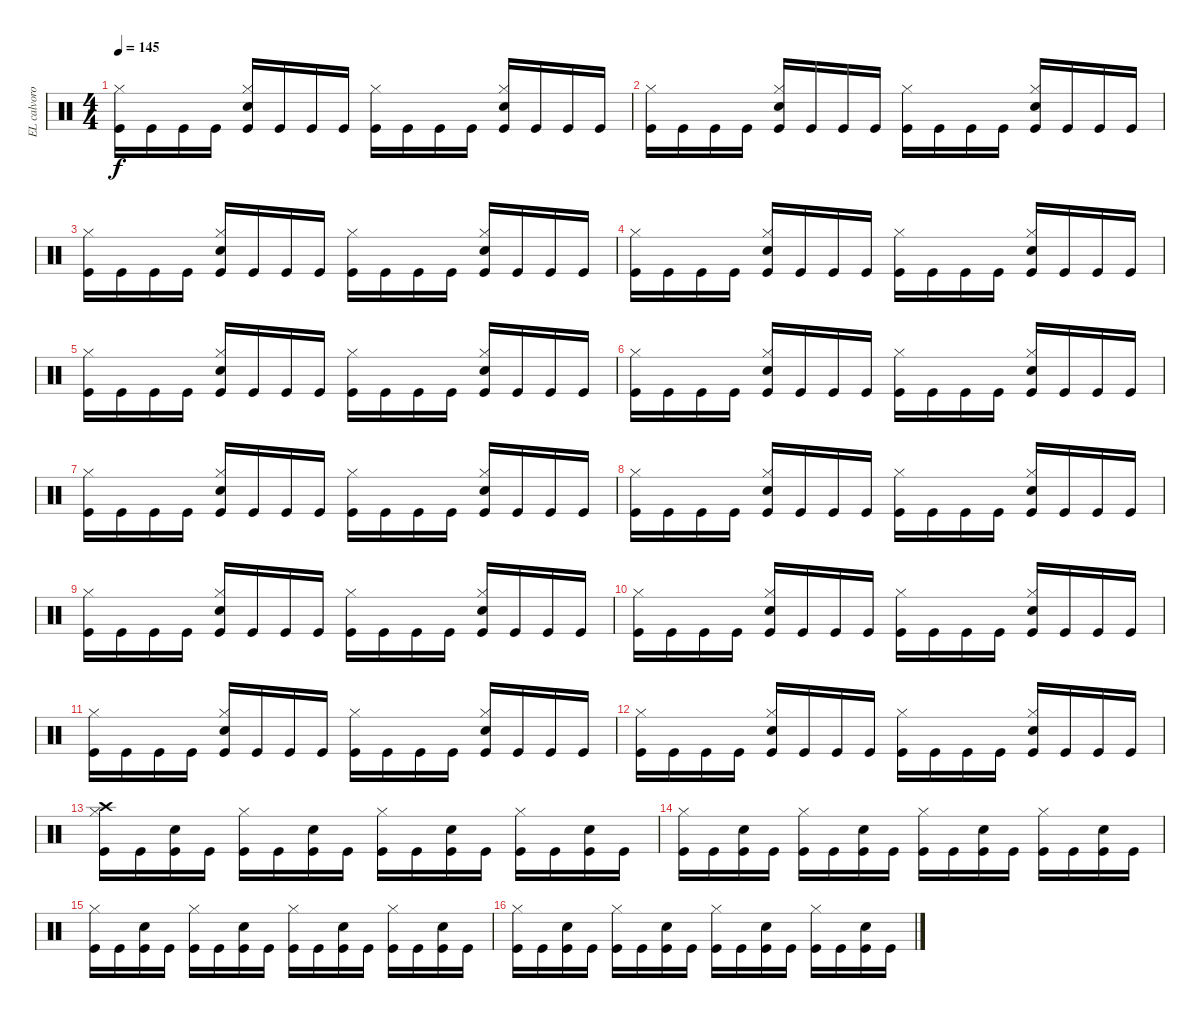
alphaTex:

\track ("EL calvorotas" "EL calvoro") {instrument percussion}
\staff {score}
\articulation defaults
\ts (4 4)
\tempo 145
\clef neutral
\ks c
("Kick (hit)" "Hi-Hat (closed)").16{dy f} "Kick (hit)".16 "Kick (hit)".16 "Kick (hit)".16 ("Hi-Hat (closed)" "Kick (hit)" "Snare (hit) 2").16 "Kick (hit)".16 "Kick (hit)".16 "Kick (hit)".16 ("Hi-Hat (closed)" "Kick (hit)").16 "Kick (hit)".16 "Kick (hit)".16 "Kick (hit)".16 ("Hi-Hat (closed)" "Kick (hit)" "Snare (hit) 2").16 "Kick (hit)".16 "Kick (hit)".16 "Kick (hit)".16 |
("Kick (hit)" "Hi-Hat (closed)").16 "Kick (hit)".16 "Kick (hit)".16 "Kick (hit)".16 ("Hi-Hat (closed)" "Kick (hit)" "Snare (hit) 2").16 "Kick (hit)".16 "Kick (hit)".16 "Kick (hit)".16 ("Hi-Hat (closed)" "Kick (hit)").16 "Kick (hit)".16 "Kick (hit)".16 "Kick (hit)".16 ("Hi-Hat (closed)" "Kick (hit)" "Snare (hit) 2").16 "Kick (hit)".16 "Kick (hit)".16 "Kick (hit)".16 |
("Kick (hit)" "Hi-Hat (closed)").16 "Kick (hit)".16 "Kick (hit)".16 "Kick (hit)".16 ("Hi-Hat (closed)" "Kick (hit)" "Snare (hit) 2").16 "Kick (hit)".16 "Kick (hit)".16 "Kick (hit)".16 ("Hi-Hat (closed)" "Kick (hit)").16 "Kick (hit)".16 "Kick (hit)".16 "Kick (hit)".16 ("Hi-Hat (closed)" "Kick (hit)" "Snare (hit) 2").16 "Kick (hit)".16 "Kick (hit)".16 "Kick (hit)".16 |
("Kick (hit)" "Hi-Hat (closed)").16 "Kick (hit)".16 "Kick (hit)".16 "Kick (hit)".16 ("Hi-Hat (closed)" "Kick (hit)" "Snare (hit) 2").16 "Kick (hit)".16 "Kick (hit)".16 "Kick (hit)".16 ("Hi-Hat (closed)" "Kick (hit)").16 "Kick (hit)".16 "Kick (hit)".16 "Kick (hit)".16 ("Hi-Hat (closed)" "Kick (hit)" "Snare (hit) 2").16 "Kick (hit)".16 "Kick (hit)".16 "Kick (hit)".16 |
("Kick (hit)" "Hi-Hat (closed)").16 "Kick (hit)".16 "Kick (hit)".16 "Kick (hit)".16 ("Hi-Hat (closed)" "Kick (hit)" "Snare (hit) 2").16 "Kick (hit)".16 "Kick (hit)".16 "Kick (hit)".16 ("Hi-Hat (closed)" "Kick (hit)").16 "Kick (hit)".16 "Kick (hit)".16 "Kick (hit)".16 ("Hi-Hat (closed)" "Kick (hit)" "Snare (hit) 2").16 "Kick (hit)".16 "Kick (hit)".16 "Kick (hit)".16 |
("Kick (hit)" "Hi-Hat (closed)").16 "Kick (hit)".16 "Kick (hit)".16 "Kick (hit)".16 ("Hi-Hat (closed)" "Kick (hit)" "Snare (hit) 2").16 "Kick (hit)".16 "Kick (hit)".16 "Kick (hit)".16 ("Hi-Hat (closed)" "Kick (hit)").16 "Kick (hit)".16 "Kick (hit)".16 "Kick (hit)".16 ("Hi-Hat (closed)" "Kick (hit)" "Snare (hit) 2").16 "Kick (hit)".16 "Kick (hit)".16 "Kick (hit)".16 |
("Kick (hit)" "Hi-Hat (closed)").16 "Kick (hit)".16 "Kick (hit)".16 "Kick (hit)".16 ("Hi-Hat (closed)" "Kick (hit)" "Snare (hit) 2").16 "Kick (hit)".16 "Kick (hit)".16 "Kick (hit)".16 ("Hi-Hat (closed)" "Kick (hit)").16 "Kick (hit)".16 "Kick (hit)".16 "Kick (hit)".16 ("Hi-Hat (closed)" "Kick (hit)" "Snare (hit) 2").16 "Kick (hit)".16 "Kick (hit)".16 "Kick (hit)".16 |
("Kick (hit)" "Hi-Hat (closed)").16 "Kick (hit)".16 "Kick (hit)".16 "Kick (hit)".16 ("Hi-Hat (closed)" "Kick (hit)" "Snare (hit) 2").16 "Kick (hit)".16 "Kick (hit)".16 "Kick (hit)".16 ("Hi-Hat (closed)" "Kick (hit)").16 "Kick (hit)".16 "Kick (hit)".16 "Kick (hit)".16 ("Hi-Hat (closed)" "Kick (hit)" "Snare (hit) 2").16 "Kick (hit)".16 "Kick (hit)".16 "Kick (hit)".16 |
("Kick (hit)" "Hi-Hat (closed)").16 "Kick (hit)".16 "Kick (hit)".16 "Kick (hit)".16 ("Hi-Hat (closed)" "Kick (hit)" "Snare (hit) 2").16 "Kick (hit)".16 "Kick (hit)".16 "Kick (hit)".16 ("Hi-Hat (closed)" "Kick (hit)").16 "Kick (hit)".16 "Kick (hit)".16 "Kick (hit)".16 ("Hi-Hat (closed)" "Kick (hit)" "Snare (hit) 2").16 "Kick (hit)".16 "Kick (hit)".16 "Kick (hit)".16 |
("Kick (hit)" "Hi-Hat (closed)").16 "Kick (hit)".16 "Kick (hit)".16 "Kick (hit)".16 ("Hi-Hat (closed)" "Kick (hit)" "Snare (hit) 2").16 "Kick (hit)".16 "Kick (hit)".16 "Kick (hit)".16 ("Hi-Hat (closed)" "Kick (hit)").16 "Kick (hit)".16 "Kick (hit)".16 "Kick (hit)".16 ("Hi-Hat (closed)" "Kick (hit)" "Snare (hit) 2").16 "Kick (hit)".16 "Kick (hit)".16 "Kick (hit)".16 |
("Kick (hit)" "Hi-Hat (closed)").16 "Kick (hit)".16 "Kick (hit)".16 "Kick (hit)".16 ("Hi-Hat (closed)" "Kick (hit)" "Snare (hit) 2").16 "Kick (hit)".16 "Kick (hit)".16 "Kick (hit)".16 ("Hi-Hat (closed)" "Kick (hit)").16 "Kick (hit)".16 "Kick (hit)".16 "Kick (hit)".16 ("Hi-Hat (closed)" "Kick (hit)" "Snare (hit) 2").16 "Kick (hit)".16 "Kick (hit)".16 "Kick (hit)".16 |
("Kick (hit)" "Hi-Hat (closed)").16 "Kick (hit)".16 "Kick (hit)".16 "Kick (hit)".16 ("Hi-Hat (closed)" "Kick (hit)" "Snare (hit) 2").16 "Kick (hit)".16 "Kick (hit)".16 "Kick (hit)".16 ("Hi-Hat (closed)" "Kick (hit)").16 "Kick (hit)".16 "Kick (hit)".16 "Kick (hit)".16 ("Hi-Hat (closed)" "Kick (hit)" "Snare (hit) 2").16 "Kick (hit)".16 "Kick (hit)".16 "Kick (hit)".16 |
("Crash high (hit)" "Kick (hit)" "Hi-Hat (closed)").16 "Kick (hit)".16 ("Kick (hit)" "Snare (hit) 2").16 "Kick (hit)".16 ("Kick (hit)" "Hi-Hat (closed)").16 "Kick (hit)".16 ("Kick (hit)" "Snare (hit) 2").16 "Kick (hit)".16 ("Hi-Hat (closed)" "Kick (hit)").16 "Kick (hit)".16 ("Kick (hit)" "Snare (hit) 2").16 "Kick (hit)".16 ("Hi-Hat (closed)" "Kick (hit)").16 "Kick (hit)".16 ("Kick (hit)" "Snare (hit) 2").16 "Kick (hit)".16 |
("Kick (hit)" "Hi-Hat (closed)").16 "Kick (hit)".16 ("Kick (hit)" "Snare (hit) 2").16 "Kick (hit)".16 ("Kick (hit)" "Hi-Hat (closed)").16 "Kick (hit)".16 ("Kick (hit)" "Snare (hit) 2").16 "Kick (hit)".16 ("Hi-Hat (closed)" "Kick (hit)").16 "Kick (hit)".16 ("Kick (hit)" "Snare (hit) 2").16 "Kick (hit)".16 ("Hi-Hat (closed)" "Kick (hit)").16 "Kick (hit)".16 ("Kick (hit)" "Snare (hit) 2").16 "Kick (hit)".16 |
("Kick (hit)" "Hi-Hat (closed)").16 "Kick (hit)".16 ("Kick (hit)" "Snare (hit) 2").16 "Kick (hit)".16 ("Kick (hit)" "Hi-Hat (closed)").16 "Kick (hit)".16 ("Kick (hit)" "Snare (hit) 2").16 "Kick (hit)".16 ("Hi-Hat (closed)" "Kick (hit)").16 "Kick (hit)".16 ("Kick (hit)" "Snare (hit) 2").16 "Kick (hit)".16 ("Hi-Hat (closed)" "Kick (hit)").16 "Kick (hit)".16 ("Kick (hit)" "Snare (hit) 2").16 "Kick (hit)".16 |
("Kick (hit)" "Hi-Hat (closed)").16 "Kick (hit)".16 ("Kick (hit)" "Snare (hit) 2").16 "Kick (hit)".16 ("Kick (hit)" "Hi-Hat (closed)").16 "Kick (hit)".16 ("Kick (hit)" "Snare (hit) 2").16 "Kick (hit)".16 ("Hi-Hat (closed)" "Kick (hit)").16 "Kick (hit)".16 ("Kick (hit)" "Snare (hit) 2").16 "Kick (hit)".16 ("Hi-Hat (closed)" "Kick (hit)").16 "Kick (hit)".16 ("Kick (hit)" "Snare (hit) 2").16 "Kick (hit)".16
